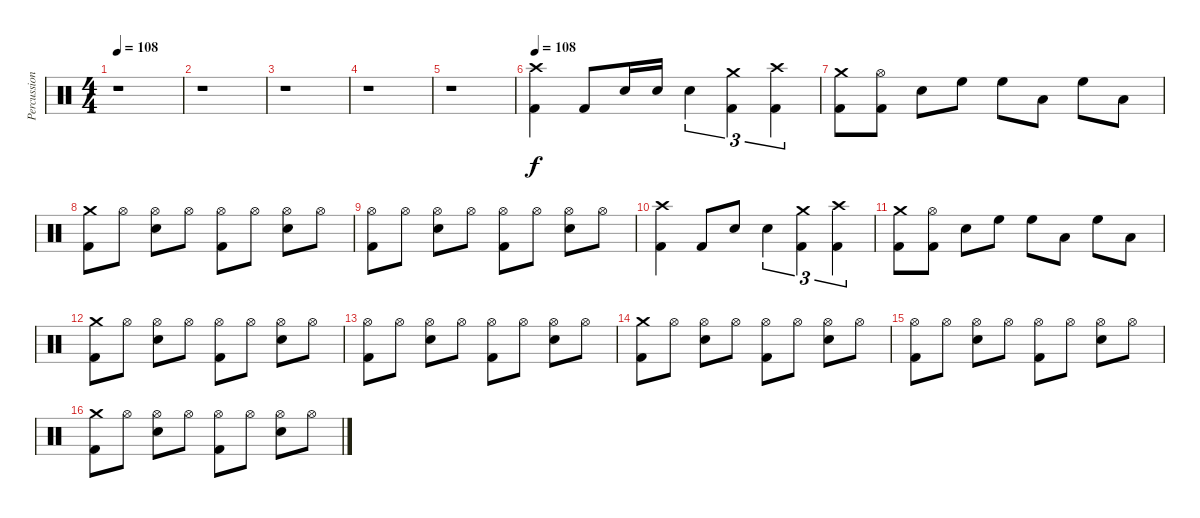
\track ("Percussion" "Percussion") {instrument percussion}
\staff {score}
\articulation defaults
\ts (4 4)
\tempo 108
\clef neutral
\ks c
r.1{dy f} |
r.1 |
r.1 |
r.1 |
r.1 |
\tempo 108
("Crash high (hit)" "Kick (hit) 2").4 "Kick (hit) 2".8 "Snare (hit) 2".16 "Snare (hit) 2".16 "Snare (hit) 2".4{tu (3 2)} ("Kick (hit) 2" "Crash medium (hit)").4{tu (3 2)} ("Kick (hit) 2" "Crash high (hit)").4{tu (3 2)} |
("Kick (hit) 2" "Crash medium (hit)").8 ("Hi-Hat (open)" "Kick (hit) 2").8 "Snare (hit) 2".8 "High Floor Tom (hit)".8 "High Floor Tom (hit)".8 "Low Tom (hit)".8 "High Floor Tom (hit)".8 "Low Tom (hit)".8 |
("Crash medium (hit)" "Kick (hit) 2").8 "Hi-Hat (open)".8 ("Hi-Hat (open)" "Snare (hit) 2").8 "Hi-Hat (open)".8 ("Hi-Hat (open)" "Kick (hit) 2").8 "Hi-Hat (open)".8 ("Hi-Hat (open)" "Snare (hit) 2").8 "Hi-Hat (open)".8 |
("Hi-Hat (open)" "Kick (hit) 2").8 "Hi-Hat (open)".8 ("Hi-Hat (open)" "Snare (hit) 2").8 "Hi-Hat (open)".8 ("Hi-Hat (open)" "Kick (hit) 2").8 "Hi-Hat (open)".8 ("Hi-Hat (open)" "Snare (hit) 2").8 "Hi-Hat (open)".8 |
("Crash high (hit)" "Kick (hit) 2").4 "Kick (hit) 2".8 "Snare (hit) 2".8 "Snare (hit) 2".4{tu (3 2)} ("Kick (hit) 2" "Crash medium (hit)").4{tu (3 2)} ("Kick (hit) 2" "Crash high (hit)").4{tu (3 2)} |
("Kick (hit) 2" "Crash medium (hit)").8 ("Hi-Hat (open)" "Kick (hit) 2").8 "Snare (hit) 2".8 "High Floor Tom (hit)".8 "High Floor Tom (hit)".8 "Low Tom (hit)".8 "High Floor Tom (hit)".8 "Low Tom (hit)".8 |
("Crash medium (hit)" "Kick (hit) 2").8 "Hi-Hat (open)".8 ("Hi-Hat (open)" "Snare (hit) 2").8 "Hi-Hat (open)".8 ("Hi-Hat (open)" "Kick (hit) 2").8 "Hi-Hat (open)".8 ("Hi-Hat (open)" "Snare (hit) 2").8 "Hi-Hat (open)".8 |
("Hi-Hat (open)" "Kick (hit) 2").8 "Hi-Hat (open)".8 ("Hi-Hat (open)" "Snare (hit) 2").8 "Hi-Hat (open)".8 ("Hi-Hat (open)" "Kick (hit) 2").8 "Hi-Hat (open)".8 ("Hi-Hat (open)" "Snare (hit) 2").8 "Hi-Hat (open)".8 |
("Crash medium (hit)" "Kick (hit) 2").8 "Hi-Hat (open)".8 ("Hi-Hat (open)" "Snare (hit) 2").8 "Hi-Hat (open)".8 ("Hi-Hat (open)" "Kick (hit) 2").8 "Hi-Hat (open)".8 ("Hi-Hat (open)" "Snare (hit) 2").8 "Hi-Hat (open)".8 |
("Hi-Hat (open)" "Kick (hit) 2").8 "Hi-Hat (open)".8 ("Hi-Hat (open)" "Snare (hit) 2").8 "Hi-Hat (open)".8 ("Hi-Hat (open)" "Kick (hit) 2").8 "Hi-Hat (open)".8 ("Hi-Hat (open)" "Snare (hit) 2").8 "Hi-Hat (open)".8 |
("Crash medium (hit)" "Kick (hit) 2").8 "Hi-Hat (open)".8 ("Hi-Hat (open)" "Snare (hit) 2").8 "Hi-Hat (open)".8 ("Hi-Hat (open)" "Kick (hit) 2").8 "Hi-Hat (open)".8 ("Hi-Hat (open)" "Snare (hit) 2").8 "Hi-Hat (open)".8
